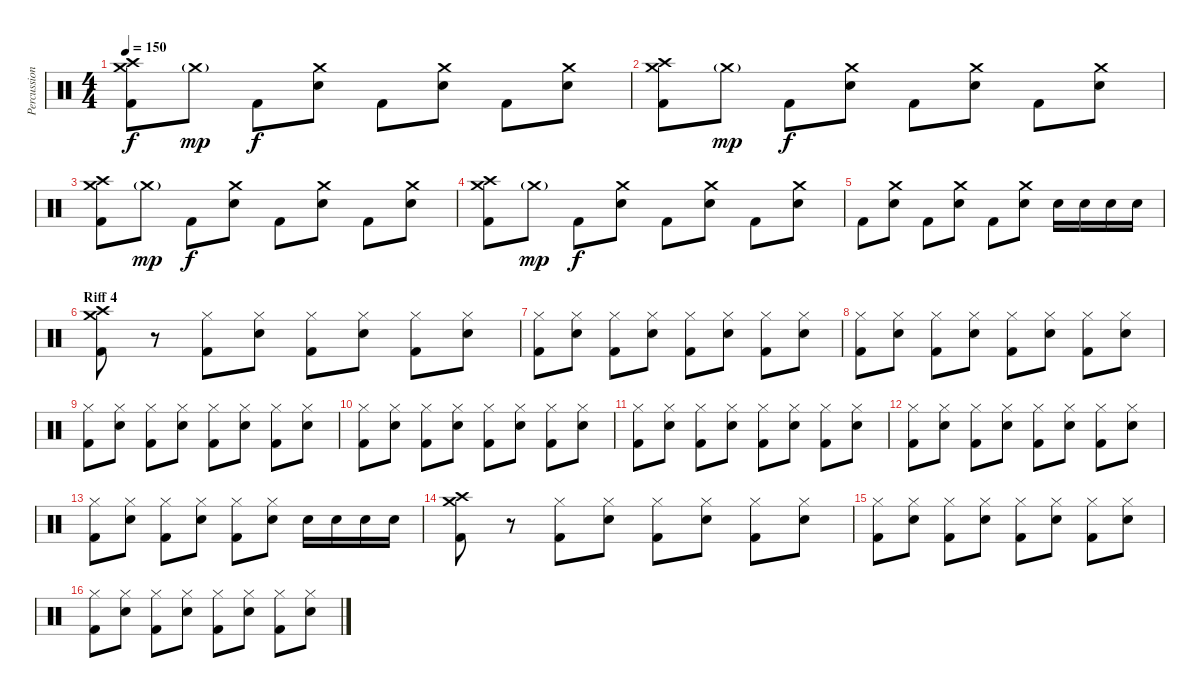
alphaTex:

\track ("Percussion" "Percussion") {instrument percussion}
\staff {score}
\articulation defaults
\ts (4 4)
\tempo 150
\clef neutral
\ks c
("Crash medium (hit)" "Crash high (hit)" "Kick (hit) 2").8{dy f} "Crash medium (hit)"{g}.8{dy mp} "Kick (hit) 2".8{dy f} ("Crash medium (hit)" "Electric Snare (hit)").8 "Kick (hit) 2".8 ("Crash medium (hit)" "Electric Snare (hit)").8 "Kick (hit) 2".8 ("Crash medium (hit)" "Electric Snare (hit)").8 |
("Crash medium (hit)" "Crash high (hit)" "Kick (hit) 2").8 "Crash medium (hit)"{g}.8{dy mp} "Kick (hit) 2".8{dy f} ("Crash medium (hit)" "Electric Snare (hit)").8 "Kick (hit) 2".8 ("Crash medium (hit)" "Electric Snare (hit)").8 "Kick (hit) 2".8 ("Crash medium (hit)" "Electric Snare (hit)").8 |
("Crash medium (hit)" "Crash high (hit)" "Kick (hit) 2").8 "Crash medium (hit)"{g}.8{dy mp} "Kick (hit) 2".8{dy f} ("Crash medium (hit)" "Electric Snare (hit)").8 "Kick (hit) 2".8 ("Crash medium (hit)" "Electric Snare (hit)").8 "Kick (hit) 2".8 ("Crash medium (hit)" "Electric Snare (hit)").8 |
("Crash medium (hit)" "Crash high (hit)" "Kick (hit) 2").8 "Crash medium (hit)"{g}.8{dy mp} "Kick (hit) 2".8{dy f} ("Crash medium (hit)" "Electric Snare (hit)").8 "Kick (hit) 2".8 ("Crash medium (hit)" "Electric Snare (hit)").8 "Kick (hit) 2".8 ("Crash medium (hit)" "Electric Snare (hit)").8 |
"Kick (hit) 2".8 ("Crash medium (hit)" "Electric Snare (hit)").8 "Kick (hit) 2".8 ("Crash medium (hit)" "Electric Snare (hit)").8 "Kick (hit) 2".8 ("Crash medium (hit)" "Electric Snare (hit)").8 "Electric Snare (hit)".16 "Electric Snare (hit)".16 "Electric Snare (hit)".16 "Electric Snare (hit)".16 |
\section ("" "Riff 4")
("Crash medium (hit)" "Crash high (hit)" "Kick (hit) 2").8 r.8 ("Hi-Hat (closed)" "Kick (hit) 2").8 ("Hi-Hat (closed)" "Electric Snare (hit)").8 ("Hi-Hat (closed)" "Kick (hit) 2").8 ("Hi-Hat (closed)" "Electric Snare (hit)").8 ("Hi-Hat (closed)" "Kick (hit) 2").8 ("Hi-Hat (closed)" "Electric Snare (hit)").8 |
("Hi-Hat (closed)" "Kick (hit) 2").8 ("Hi-Hat (closed)" "Electric Snare (hit)").8 ("Hi-Hat (closed)" "Kick (hit) 2").8 ("Hi-Hat (closed)" "Electric Snare (hit)").8 ("Hi-Hat (closed)" "Kick (hit) 2").8 ("Hi-Hat (closed)" "Electric Snare (hit)").8 ("Hi-Hat (closed)" "Kick (hit) 2").8 ("Hi-Hat (closed)" "Electric Snare (hit)").8 |
("Hi-Hat (closed)" "Kick (hit) 2").8 ("Hi-Hat (closed)" "Electric Snare (hit)").8 ("Hi-Hat (closed)" "Kick (hit) 2").8 ("Hi-Hat (closed)" "Electric Snare (hit)").8 ("Hi-Hat (closed)" "Kick (hit) 2").8 ("Hi-Hat (closed)" "Electric Snare (hit)").8 ("Hi-Hat (closed)" "Kick (hit) 2").8 ("Hi-Hat (closed)" "Electric Snare (hit)").8 |
("Hi-Hat (closed)" "Kick (hit) 2").8 ("Hi-Hat (closed)" "Electric Snare (hit)").8 ("Hi-Hat (closed)" "Kick (hit) 2").8 ("Hi-Hat (closed)" "Electric Snare (hit)").8 ("Hi-Hat (closed)" "Kick (hit) 2").8 ("Hi-Hat (closed)" "Electric Snare (hit)").8 ("Hi-Hat (closed)" "Kick (hit) 2").8 ("Hi-Hat (closed)" "Electric Snare (hit)").8 |
("Hi-Hat (closed)" "Kick (hit) 2").8 ("Hi-Hat (closed)" "Electric Snare (hit)").8 ("Hi-Hat (closed)" "Kick (hit) 2").8 ("Hi-Hat (closed)" "Electric Snare (hit)").8 ("Hi-Hat (closed)" "Kick (hit) 2").8 ("Hi-Hat (closed)" "Electric Snare (hit)").8 ("Hi-Hat (closed)" "Kick (hit) 2").8 ("Hi-Hat (closed)" "Electric Snare (hit)").8 |
("Hi-Hat (closed)" "Kick (hit) 2").8 ("Hi-Hat (closed)" "Electric Snare (hit)").8 ("Hi-Hat (closed)" "Kick (hit) 2").8 ("Hi-Hat (closed)" "Electric Snare (hit)").8 ("Hi-Hat (closed)" "Kick (hit) 2").8 ("Hi-Hat (closed)" "Electric Snare (hit)").8 ("Hi-Hat (closed)" "Kick (hit) 2").8 ("Hi-Hat (closed)" "Electric Snare (hit)").8 |
("Hi-Hat (closed)" "Kick (hit) 2").8 ("Hi-Hat (closed)" "Electric Snare (hit)").8 ("Hi-Hat (closed)" "Kick (hit) 2").8 ("Hi-Hat (closed)" "Electric Snare (hit)").8 ("Hi-Hat (closed)" "Kick (hit) 2").8 ("Hi-Hat (closed)" "Electric Snare (hit)").8 ("Hi-Hat (closed)" "Kick (hit) 2").8 ("Hi-Hat (closed)" "Electric Snare (hit)").8 |
("Hi-Hat (closed)" "Kick (hit) 2").8 ("Hi-Hat (closed)" "Electric Snare (hit)").8 ("Hi-Hat (closed)" "Kick (hit) 2").8 ("Hi-Hat (closed)" "Electric Snare (hit)").8 ("Hi-Hat (closed)" "Kick (hit) 2").8 ("Hi-Hat (closed)" "Electric Snare (hit)").8 "Electric Snare (hit)".16 "Electric Snare (hit)".16 "Electric Snare (hit)".16 "Electric Snare (hit)".16 |
("Crash medium (hit)" "Crash high (hit)" "Kick (hit) 2").8 r.8 ("Hi-Hat (closed)" "Kick (hit) 2").8 ("Hi-Hat (closed)" "Electric Snare (hit)").8 ("Hi-Hat (closed)" "Kick (hit) 2").8 ("Hi-Hat (closed)" "Electric Snare (hit)").8 ("Hi-Hat (closed)" "Kick (hit) 2").8 ("Hi-Hat (closed)" "Electric Snare (hit)").8 |
("Hi-Hat (closed)" "Kick (hit) 2").8 ("Hi-Hat (closed)" "Electric Snare (hit)").8 ("Hi-Hat (closed)" "Kick (hit) 2").8 ("Hi-Hat (closed)" "Electric Snare (hit)").8 ("Hi-Hat (closed)" "Kick (hit) 2").8 ("Hi-Hat (closed)" "Electric Snare (hit)").8 ("Hi-Hat (closed)" "Kick (hit) 2").8 ("Hi-Hat (closed)" "Electric Snare (hit)").8 |
("Hi-Hat (closed)" "Kick (hit) 2").8 ("Hi-Hat (closed)" "Electric Snare (hit)").8 ("Hi-Hat (closed)" "Kick (hit) 2").8 ("Hi-Hat (closed)" "Electric Snare (hit)").8 ("Hi-Hat (closed)" "Kick (hit) 2").8 ("Hi-Hat (closed)" "Electric Snare (hit)").8 ("Hi-Hat (closed)" "Kick (hit) 2").8 ("Hi-Hat (closed)" "Electric Snare (hit)").8
